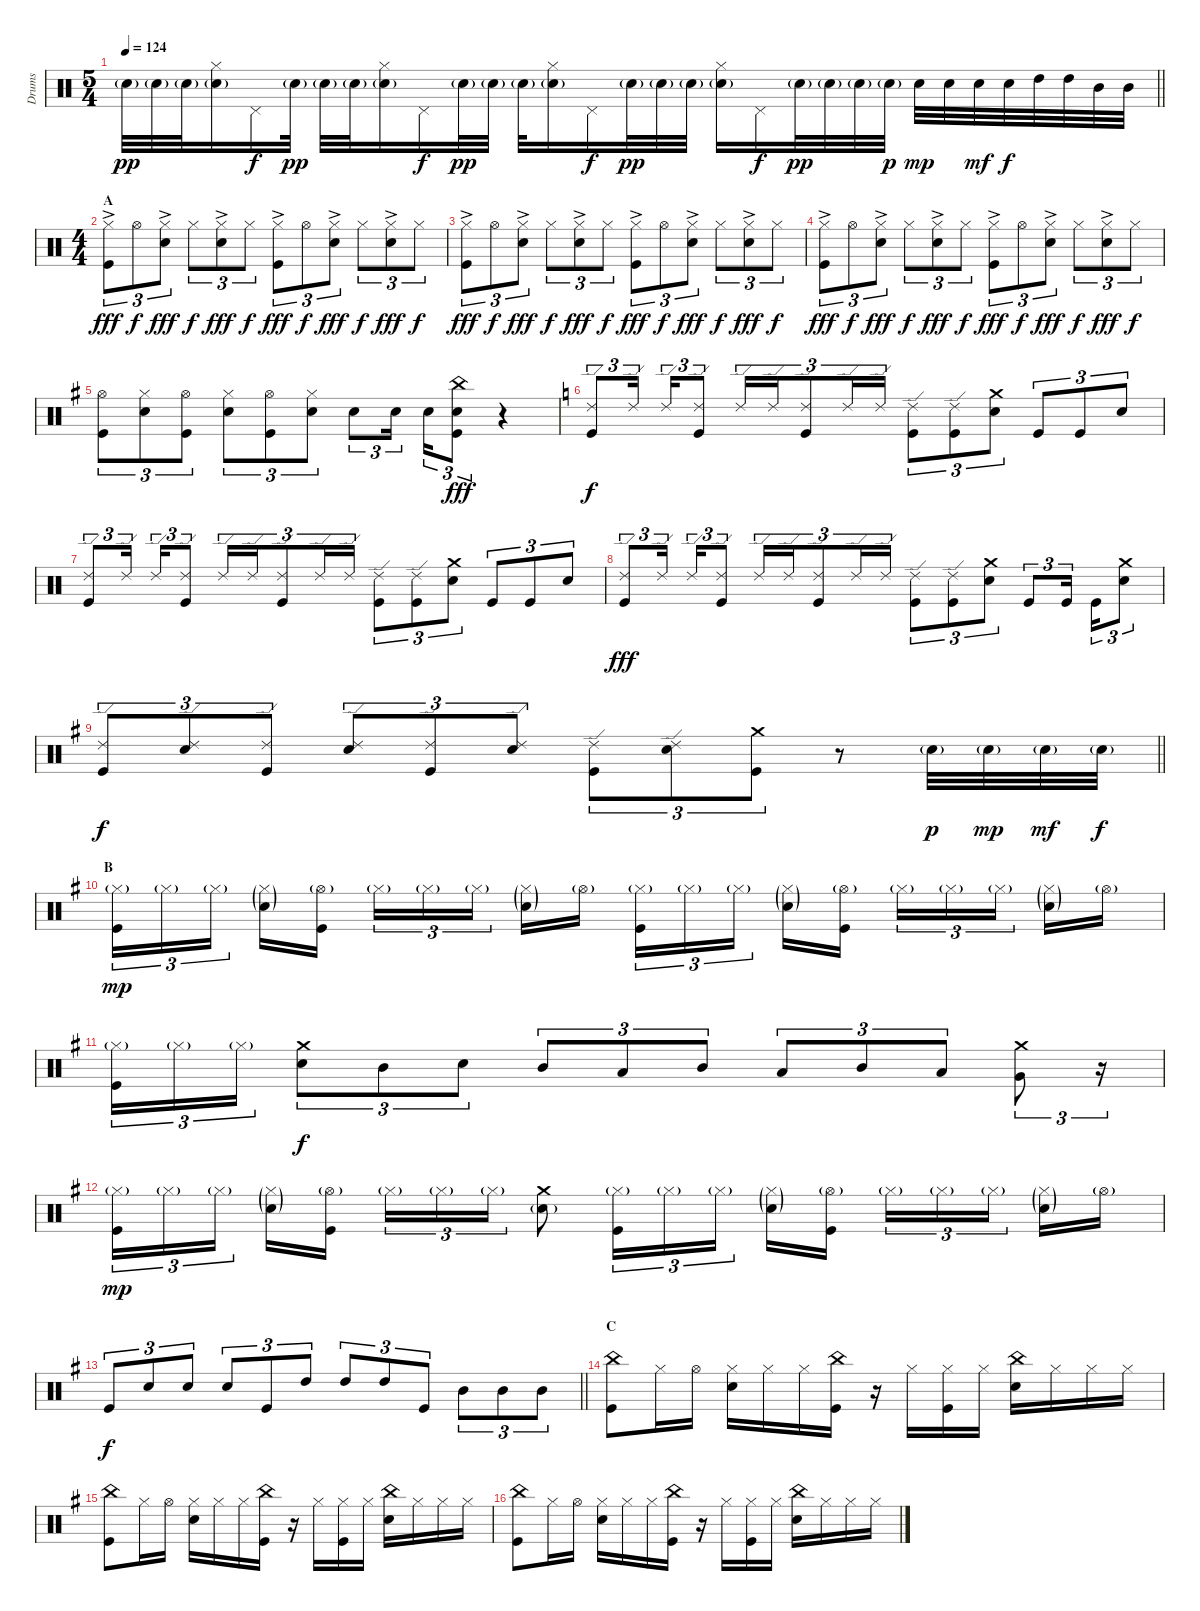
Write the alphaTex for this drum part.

\track ("Drums" "Drums") {instrument percussion}
\staff {score}
\articulation defaults
\ts (5 4)
\tempo 124
\clef neutral
\barLineRight lightlight
\ks c "Electric Snare (hit)"{g}.32{dy pp} "Electric Snare (hit)"{g}.32 "Electric Snare (hit)"{g}.32
("Hi-Hat (closed)" "Electric Snare (hit)"{g}).16 "Pedal Hi-Hat (hit)".16{dy f} "Electric Snare (hit)"{g}.32{dy pp} "Electric Snare (hit)"{g}.32 "Electric Snare (hit)"{g}.32 ("Hi-Hat (closed)" "Electric Snare (hit)"{g}).16 "Pedal Hi-Hat (hit)".16{dy f} "Electric Snare (hit)"{g}.32{dy pp} "Electric Snare (hit)"{g}.32 "Electric Snare (hit)"{g}.32 ("Hi-Hat (closed)" "Electric Snare (hit)"{g}).16 "Pedal Hi-Hat (hit)".16{dy f} "Electric Snare (hit)"{g}.32{dy pp} "Electric Snare (hit)"{g}.32 "Electric Snare (hit)"{g}.32 ("Hi-Hat (closed)" "Electric Snare (hit)"{g}).16 "Pedal Hi-Hat (hit)".16{dy f} "Electric Snare (hit)"{g}.32{dy pp} "Electric Snare (hit)"{g}.32 "Electric Snare (hit)"{g}.32 "Electric Snare (hit)"{g}.32{dy p} "Electric Snare (hit)".32{dy mp} "Electric Snare (hit)".32 "Electric Snare (hit)".32{dy mf} "Electric Snare (hit)".32{dy f} "High Tom (hit)".32 "High Tom (hit)".32 "Mid Tom (hit)".32 "Mid Tom (hit)".32 |
\ts (4 4)
\section ("" "A")
("Hi-Hat (closed)"{ac} "Kick (hit)").8{tu (3 2) dy fff} "Hi-Hat (open)".8{tu (3 2) dy f} ("Hi-Hat (closed)"{ac} "Electric Snare (hit)").8{tu (3 2) dy fff} "Hi-Hat (closed)".8{tu (3 2) dy f} ("Hi-Hat (closed)"{ac} "Electric Snare (hit)").8{tu (3 2) dy fff} "Hi-Hat (closed)".8{tu (3 2) dy f} ("Hi-Hat (closed)"{ac} "Kick (hit)").8{tu (3 2) dy fff} "Hi-Hat (open)".8{tu (3 2) dy f} ("Hi-Hat (closed)"{ac} "Electric Snare (hit)").8{tu (3 2) dy fff} "Hi-Hat (closed)".8{tu (3 2) dy f} ("Hi-Hat (closed)"{ac} "Electric Snare (hit)").8{tu (3 2) dy fff} "Hi-Hat (closed)".8{tu (3 2) dy f} |
("Hi-Hat (closed)"{ac} "Kick (hit)").8{tu (3 2) dy fff} "Hi-Hat (open)".8{tu (3 2) dy f} ("Hi-Hat (closed)"{ac} "Electric Snare (hit)").8{tu (3 2) dy fff} "Hi-Hat (closed)".8{tu (3 2) dy f} ("Hi-Hat (closed)"{ac} "Electric Snare (hit)").8{tu (3 2) dy fff} "Hi-Hat (closed)".8{tu (3 2) dy f} ("Hi-Hat (closed)"{ac} "Kick (hit)").8{tu (3 2) dy fff} "Hi-Hat (open)".8{tu (3 2) dy f} ("Hi-Hat (closed)"{ac} "Electric Snare (hit)").8{tu (3 2) dy fff} "Hi-Hat (closed)".8{tu (3 2) dy f} ("Hi-Hat (closed)"{ac} "Electric Snare (hit)").8{tu (3 2) dy fff} "Hi-Hat (closed)".8{tu (3 2) dy f} |
("Hi-Hat (closed)"{ac} "Kick (hit)").8{tu (3 2) dy fff} "Hi-Hat (open)".8{tu (3 2) dy f} ("Hi-Hat (closed)"{ac} "Electric Snare (hit)").8{tu (3 2) dy fff} "Hi-Hat (closed)".8{tu (3 2) dy f} ("Hi-Hat (closed)"{ac} "Electric Snare (hit)").8{tu (3 2) dy fff} "Hi-Hat (closed)".8{tu (3 2) dy f} ("Hi-Hat (closed)"{ac} "Kick (hit)").8{tu (3 2) dy fff} "Hi-Hat (open)".8{tu (3 2) dy f} ("Hi-Hat (closed)"{ac} "Electric Snare (hit)").8{tu (3 2) dy fff} "Hi-Hat (closed)".8{tu (3 2) dy f} ("Hi-Hat (closed)"{ac} "Electric Snare (hit)").8{tu (3 2) dy fff} "Hi-Hat (closed)".8{tu (3 2) dy f} |
\ks eminor
("Hi-Hat (open)" "Kick (hit)").8{tu (3 2)} ("Hi-Hat (closed)" "Electric Snare (hit)").8{tu (3 2)} ("Hi-Hat (open)" "Kick (hit)").8{tu (3 2)} ("Hi-Hat (closed)" "Electric Snare (hit)").8{tu (3 2)} ("Hi-Hat (open)" "Kick (hit)").8{tu (3 2)} ("Hi-Hat (closed)" "Electric Snare (hit)").8{tu (3 2)} "Electric Snare (hit)".8{tu (3 2)} "Electric Snare (hit)".16{tu (3 2)} "Electric Snare (hit)".16{tu (3 2)} ("China (hit)" "Electric Snare (hit)" "Kick (hit)").8{tu (3 2) dy fff} r.4 |
\ks c
("Ride (edge) 2" "Kick (hit)").8{tu (3 2) dy f} "Ride (edge) 2".16{tu (3 2)} "Ride (edge) 2".16{tu (3 2)} ("Ride (edge) 2" "Kick (hit)").8{tu (3 2)} "Ride (edge) 2".16{tu (3 2)} "Ride (edge) 2".16{tu (3 2)} ("Ride (edge) 2" "Kick (hit)").8{tu (3 2)} "Ride (edge) 2".16{tu (3 2)} "Ride (edge) 2".16{tu (3 2)} ("Ride (edge) 2" "Kick (hit)").8{tu (3 2)} ("Ride (edge) 2" "Kick (hit)").8{tu (3 2)} ("Crash medium (hit)" "Electric Snare (hit)").8{tu (3 2)} "Kick (hit)".8{tu (3 2)} "Kick (hit)".8{tu (3 2)} "Electric Snare (hit)".8{tu (3 2)} |
("Ride (edge) 2" "Kick (hit)").8{tu (3 2)} "Ride (edge) 2".16{tu (3 2)} "Ride (edge) 2".16{tu (3 2)} ("Ride (edge) 2" "Kick (hit)").8{tu (3 2)} "Ride (edge) 2".16{tu (3 2)} "Ride (edge) 2".16{tu (3 2)} ("Ride (edge) 2" "Kick (hit)").8{tu (3 2)} "Ride (edge) 2".16{tu (3 2)} "Ride (edge) 2".16{tu (3 2)} ("Ride (edge) 2" "Kick (hit)").8{tu (3 2)} ("Ride (edge) 2" "Kick (hit)").8{tu (3 2)} ("Crash medium (hit)" "Electric Snare (hit)").8{tu (3 2)} "Kick (hit)".8{tu (3 2)} "Kick (hit)".8{tu (3 2)} "Electric Snare (hit)".8{tu (3 2)} |
("Ride (edge) 2" "Kick (hit)").8{tu (3 2) dy fff} "Ride (edge) 2".16{tu (3 2)} "Ride (edge) 2".16{tu (3 2)} ("Ride (edge) 2" "Kick (hit)").8{tu (3 2)} "Ride (edge) 2".16{tu (3 2)} "Ride (edge) 2".16{tu (3 2)} ("Ride (edge) 2" "Kick (hit)").8{tu (3 2)} "Ride (edge) 2".16{tu (3 2)} "Ride (edge) 2".16{tu (3 2)} ("Ride (edge) 2" "Kick (hit)").8{tu (3 2)} ("Ride (edge) 2" "Kick (hit)").8{tu (3 2)} ("Crash medium (hit)" "Electric Snare (hit)").8{tu (3 2)} "Kick (hit)".8{tu (3 2)} "Kick (hit)".16{tu (3 2)} "Kick (hit)".16{tu (3 2)} ("Crash medium (hit)" "Electric Snare (hit)").8{tu (3 2)} |
\barLineRight lightlight
\ks eminor
("Ride (edge) 2" "Kick (hit)").8{tu (3 2) dy f} ("Ride (edge) 2" "Electric Snare (hit)").8{tu (3 2)} ("Ride (edge) 2" "Kick (hit)").8{tu (3 2)} ("Ride (edge) 2" "Electric Snare (hit)").8{tu (3 2)} ("Ride (edge) 2" "Kick (hit)").8{tu (3 2)} ("Ride (edge) 2" "Electric Snare (hit)").8{tu (3 2)} ("Ride (edge) 2" "Kick (hit)").8{tu (3 2)} ("Ride (edge) 2" "Electric Snare (hit)").8{tu (3 2)} ("Crash medium (hit)" "Kick (hit)").8{tu (3 2)} r.8 "Electric Snare (hit)"{g}.32{dy p} "Electric Snare (hit)"{g}.32{dy mp} "Electric Snare (hit)"{g}.32{dy mf} "Electric Snare (hit)"{g}.32{dy f} |
\section ("" "B")
("Hi-Hat (closed)"{g} "Kick (hit)").16{tu (3 2) dy mp} "Hi-Hat (closed)"{g}.16{tu (3 2)} "Hi-Hat (closed)"{g}.16{tu (3 2)} ("Hi-Hat (closed)"{g} "Electric Snare (hit)"{g}).16 ("Hi-Hat (open)"{g} "Kick (hit)").16 "Hi-Hat (closed)"{g}.16{tu (3 2)} "Hi-Hat (closed)"{g}.16{tu (3 2)} "Hi-Hat (closed)"{g}.16{tu (3 2)} ("Hi-Hat (closed)"{g} "Electric Snare (hit)"{g}).16 "Hi-Hat (open)"{g}.16 ("Hi-Hat (closed)"{g} "Kick (hit)").16{tu (3 2)} "Hi-Hat (closed)"{g}.16{tu (3 2)} "Hi-Hat (closed)"{g}.16{tu (3 2)} ("Hi-Hat (closed)"{g} "Electric Snare (hit)"{g}).16 ("Hi-Hat (open)"{g} "Kick (hit)").16 "Hi-Hat (closed)"{g}.16{tu (3 2)} "Hi-Hat (closed)"{g}.16{tu (3 2)} "Hi-Hat (closed)"{g}.16{tu (3 2)} ("Hi-Hat (closed)"{g} "Electric Snare (hit)"{g}).16 "Hi-Hat (open)"{g}.16 |
("Hi-Hat (closed)"{g} "Kick (hit)").16{tu (3 2)} "Hi-Hat (closed)"{g}.16{tu (3 2)} "Hi-Hat (closed)"{g}.16{tu (3 2)} ("Crash medium (hit)" "Electric Snare (hit)").8{tu (3 2) dy f} "Mid Tom (hit)".8{tu (3 2)} "Electric Snare (hit)".8{tu (3 2)} "Mid Tom (hit)".8{tu (3 2)} "Low Tom (hit)".8{tu (3 2)} "Mid Tom (hit)".8{tu (3 2)} "Low Tom (hit)".8{tu (3 2)} "Mid Tom (hit)".8{tu (3 2)} "Low Tom (hit)".8{tu (3 2)} ("Crash medium (hit)" "Very Low Tom (hit)").8{tu (3 2)} r.16{tu (3 2)} |
("Hi-Hat (closed)"{g} "Kick (hit)").16{tu (3 2) dy mp} "Hi-Hat (closed)"{g}.16{tu (3 2)} "Hi-Hat (closed)"{g}.16{tu (3 2)} ("Hi-Hat (closed)"{g} "Electric Snare (hit)"{g}).16 ("Hi-Hat (open)"{g} "Kick (hit)").16 "Hi-Hat (closed)"{g}.16{tu (3 2)} "Hi-Hat (closed)"{g}.16{tu (3 2)} "Hi-Hat (closed)"{g}.16{tu (3 2)} ("Crash medium (hit)" "Electric Snare (hit)"{g}).8 ("Hi-Hat (closed)"{g} "Kick (hit)").16{tu (3 2)} "Hi-Hat (closed)"{g}.16{tu (3 2)} "Hi-Hat (closed)"{g}.16{tu (3 2)} ("Hi-Hat (closed)"{g} "Electric Snare (hit)"{g}).16 ("Hi-Hat (open)"{g} "Kick (hit)").16 "Hi-Hat (closed)"{g}.16{tu (3 2)} "Hi-Hat (closed)"{g}.16{tu (3 2)} "Hi-Hat (closed)"{g}.16{tu (3 2)} ("Hi-Hat (closed)"{g} "Electric Snare (hit)"{g}).16 "Hi-Hat (open)"{g}.16 |
\barLineRight lightlight "Kick (hit)".8{tu (3 2) dy f} "Electric Snare (hit)".8{tu (3 2)} "Electric Snare (hit)".8{tu (3 2)} "Electric Snare (hit)".8{tu (3 2)} "Kick (hit)".8{tu (3 2)} "High Tom (hit)".8{tu (3 2)} "High Tom (hit)".8{tu (3 2)} "High Tom (hit)".8{tu (3 2)} "Kick (hit)".8{tu (3 2)} "Mid Tom (hit)".8{tu (3 2)} "Mid Tom (hit)".8{tu (3 2)} "Mid Tom (hit)".8{tu (3 2)}
|
\section ("" "C")
("China (hit)" "Kick (hit)").8 "Hi-Hat (closed)".16 "Hi-Hat (open)".16 ("Hi-Hat (closed)" "Electric Snare (hit)").16 "Hi-Hat (closed)".16 "Hi-Hat (closed)".16 ("China (hit)" "Kick (hit)").16 r.16 "Hi-Hat (closed)".16 ("Hi-Hat (closed)" "Kick (hit)").16 "Hi-Hat (closed)".16 ("China (hit)" "Electric Snare (hit)").16 "Hi-Hat (closed)".16 "Hi-Hat (closed)".16 "Hi-Hat (closed)".16 |
("China (hit)" "Kick (hit)").8 "Hi-Hat (closed)".16 "Hi-Hat (open)".16 ("Hi-Hat (closed)" "Electric Snare (hit)").16 "Hi-Hat (closed)".16 "Hi-Hat (closed)".16 ("China (hit)" "Kick (hit)").16 r.16 "Hi-Hat (closed)".16 ("Hi-Hat (closed)" "Kick (hit)").16 "Hi-Hat (closed)".16 ("China (hit)" "Electric Snare (hit)").16 "Hi-Hat (closed)".16 "Hi-Hat (closed)".16 "Hi-Hat (closed)".16 |
("China (hit)" "Kick (hit)").8 "Hi-Hat (closed)".16 "Hi-Hat (open)".16 ("Hi-Hat (closed)" "Electric Snare (hit)").16 "Hi-Hat (closed)".16 "Hi-Hat (closed)".16 ("China (hit)" "Kick (hit)").16 r.16 "Hi-Hat (closed)".16 ("Hi-Hat (closed)" "Kick (hit)").16 "Hi-Hat (closed)".16 ("China (hit)" "Electric Snare (hit)").16 "Hi-Hat (closed)".16 "Hi-Hat (closed)".16 "Hi-Hat (closed)".16
